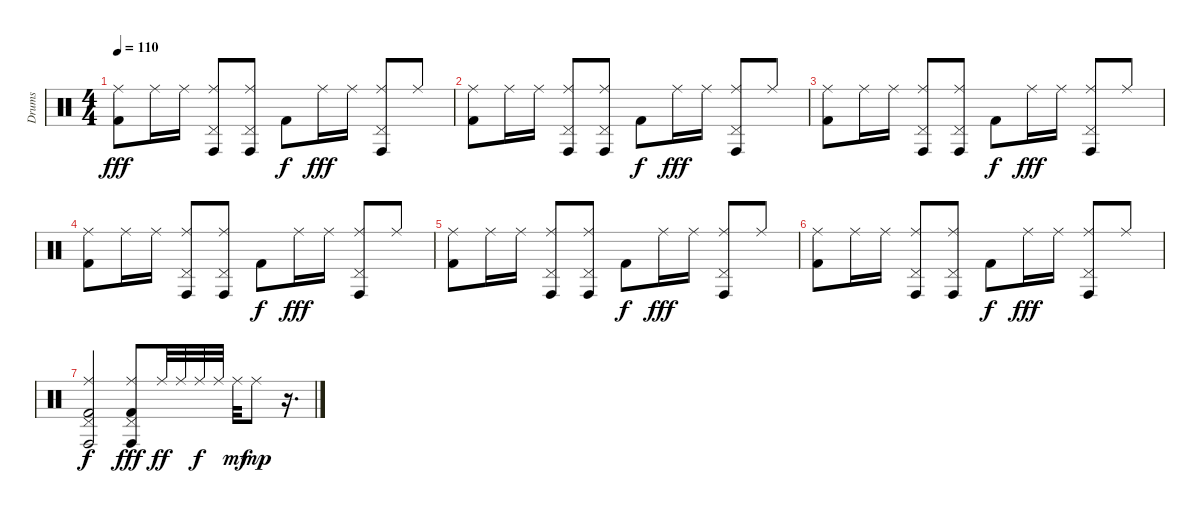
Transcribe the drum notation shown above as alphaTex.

\track ("Drums" "Drums") {instrument percussion}
\staff {score}
\articulation defaults
\ts (4 4)
\tempo 110
\clef neutral
\ks c
("Ride (middle)" "Kick (hit) 2").8{dy fff} "Ride (middle)".16 "Ride (middle)".16 ("Ride (middle)" "Pedal Hi-Hat (hit)" "Conga high (hit)").8 ("Ride (middle)" "Pedal Hi-Hat (hit)" "Conga high (hit)").8 "Kick (hit) 2".8{dy f} "Ride (middle)".16{dy fff} "Ride (middle)".16 ("Ride (middle)" "Pedal Hi-Hat (hit)" "Conga high (hit)").8 "Ride (middle)".8 |
("Ride (middle)" "Kick (hit) 2").8 "Ride (middle)".16 "Ride (middle)".16 ("Ride (middle)" "Pedal Hi-Hat (hit)" "Conga high (hit)").8 ("Ride (middle)" "Pedal Hi-Hat (hit)" "Conga high (hit)").8 "Kick (hit) 2".8{dy f} "Ride (middle)".16{dy fff} "Ride (middle)".16 ("Ride (middle)" "Pedal Hi-Hat (hit)" "Conga high (hit)").8 "Ride (middle)".8 |
("Ride (middle)" "Kick (hit) 2").8 "Ride (middle)".16 "Ride (middle)".16 ("Ride (middle)" "Pedal Hi-Hat (hit)" "Conga high (hit)").8 ("Ride (middle)" "Pedal Hi-Hat (hit)" "Conga high (hit)").8 "Kick (hit) 2".8{dy f} "Ride (middle)".16{dy fff} "Ride (middle)".16 ("Ride (middle)" "Pedal Hi-Hat (hit)" "Conga high (hit)").8 "Ride (middle)".8 |
("Ride (middle)" "Kick (hit) 2").8 "Ride (middle)".16 "Ride (middle)".16 ("Ride (middle)" "Pedal Hi-Hat (hit)" "Conga high (hit)").8 ("Ride (middle)" "Pedal Hi-Hat (hit)" "Conga high (hit)").8 "Kick (hit) 2".8{dy f} "Ride (middle)".16{dy fff} "Ride (middle)".16 ("Ride (middle)" "Pedal Hi-Hat (hit)" "Conga high (hit)").8 "Ride (middle)".8 |
("Ride (middle)" "Kick (hit) 2").8 "Ride (middle)".16 "Ride (middle)".16 ("Ride (middle)" "Pedal Hi-Hat (hit)" "Conga high (hit)").8 ("Ride (middle)" "Pedal Hi-Hat (hit)" "Conga high (hit)").8 "Kick (hit) 2".8{dy f} "Ride (middle)".16{dy fff} "Ride (middle)".16 ("Ride (middle)" "Pedal Hi-Hat (hit)" "Conga high (hit)").8 "Ride (middle)".8 |
("Ride (middle)" "Kick (hit) 2").8 "Ride (middle)".16 "Ride (middle)".16 ("Ride (middle)" "Pedal Hi-Hat (hit)" "Conga high (hit)").8 ("Ride (middle)" "Pedal Hi-Hat (hit)" "Conga high (hit)").8 "Kick (hit) 2".8{dy f} "Ride (middle)".16{dy fff} "Ride (middle)".16 ("Ride (middle)" "Pedal Hi-Hat (hit)" "Conga high (hit)").8 "Ride (middle)".8 |
("Ride (middle)" "Pedal Hi-Hat (hit)" "Conga high (hit)" "Kick (hit) 2").2{dy f} ("Ride (middle)" "Pedal Hi-Hat (hit)" "Conga high (hit)" "Kick (hit) 2").8{dy fff} "Ride (middle)".32{dy ff} "Ride (middle)".32 "Ride (middle)".32{dy f} "Ride (middle)".32 "Ride (middle)".32{dy mf} "Ride (middle)".8{dy mp} r.16{d}
